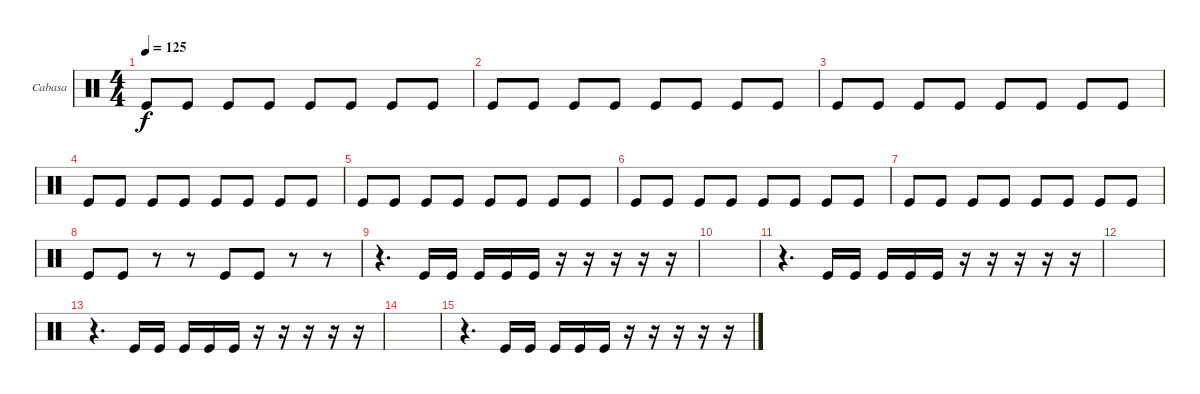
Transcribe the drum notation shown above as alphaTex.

\bracketExtendMode groupsimilarinstruments
\firstSystemTrackNameOrientation horizontal
\otherSystemsTrackNameOrientation horizontal
\track ("Cabasa" "Cabasa") {instrument percussion}
\staff {score}
\articulation defaults
\ts (4 4)
\tempo 125
\clef neutral
\scale
0.333333
\ks c "Kick (hit)".8{dy f} "Kick (hit)".8 "Kick (hit)".8 "Kick (hit)".8 "Kick (hit)".8 "Kick (hit)".8 "Kick (hit)".8 "Kick (hit)".8
|
\scale
0.333333 "Kick (hit)".8 "Kick (hit)".8 "Kick (hit)".8 "Kick (hit)".8 "Kick (hit)".8 "Kick (hit)".8 "Kick (hit)".8 "Kick (hit)".8 |
\scale
0.333333 "Kick (hit)".8 "Kick (hit)".8 "Kick (hit)".8 "Kick (hit)".8 "Kick (hit)".8 "Kick (hit)".8 "Kick (hit)".8 "Kick (hit)".8 |
\scale
0.333333 "Kick (hit)".8 "Kick (hit)".8 "Kick (hit)".8 "Kick (hit)".8 "Kick (hit)".8 "Kick (hit)".8 "Kick (hit)".8 "Kick (hit)".8 |
\scale
0.333333 "Kick (hit)".8 "Kick (hit)".8 "Kick (hit)".8 "Kick (hit)".8 "Kick (hit)".8 "Kick (hit)".8 "Kick (hit)".8 "Kick (hit)".8 |
\scale
0.333333 "Kick (hit)".8 "Kick (hit)".8 "Kick (hit)".8 "Kick (hit)".8 "Kick (hit)".8 "Kick (hit)".8 "Kick (hit)".8 "Kick (hit)".8 |
\scale
0.333333 "Kick (hit)".8 "Kick (hit)".8 "Kick (hit)".8 "Kick (hit)".8 "Kick (hit)".8 "Kick (hit)".8 "Kick (hit)".8 "Kick (hit)".8 |
\scale
0.333333 "Kick (hit)".8 "Kick (hit)".8 r.8 r.8 "Kick (hit)".8 "Kick (hit)".8 r.8 r.8 |
\scale
0.333333 r.4{d} "Kick (hit)".16 "Kick (hit)".16 "Kick (hit)".16 "Kick (hit)".16 "Kick (hit)".16 r.16 r.16 r.16 r.16 r.16 |
\scale
0.333333 |
\scale
0.333333 r.4{d} "Kick (hit)".16 "Kick (hit)".16 "Kick (hit)".16 "Kick (hit)".16 "Kick (hit)".16 r.16 r.16 r.16 r.16 r.16 |
\scale
0.333333 |
\scale
0.333333 r.4{d} "Kick (hit)".16 "Kick (hit)".16 "Kick (hit)".16 "Kick (hit)".16 "Kick (hit)".16 r.16 r.16 r.16 r.16 r.16 |
\scale
0.333333 |
\scale
0.333333 r.4{d} "Kick (hit)".16 "Kick (hit)".16 "Kick (hit)".16 "Kick (hit)".16 "Kick (hit)".16 r.16 r.16 r.16 r.16 r.16 |
\scale
0.333333
